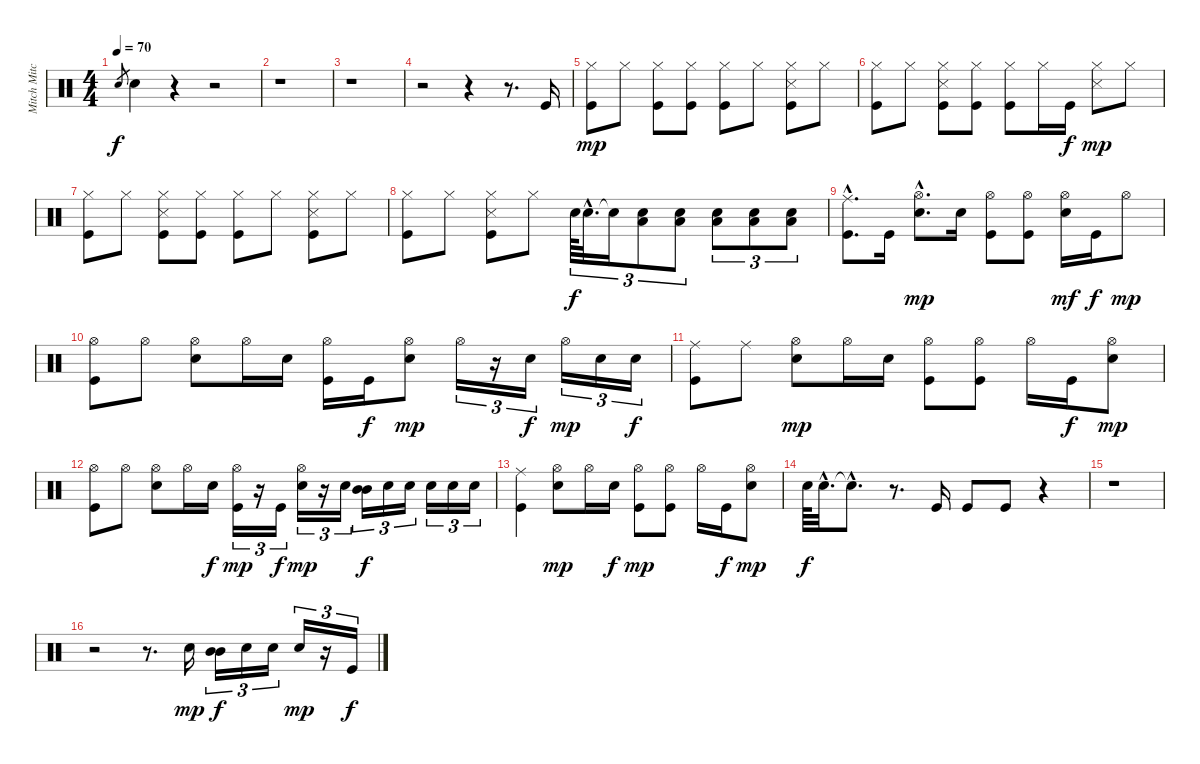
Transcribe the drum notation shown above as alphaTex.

\track ("Mitch Mitchell" "Mitch Mitc") {instrument percussion}
\staff {score}
\articulation defaults
\ts (4 4)
\tempo 70
\clef neutral
\ks c "Electric Snare (hit)".8{gr dy f} "Electric Snare (hit)".4
r.4 r.2 |
r.1 |
r.1 |
r.2 r.4 r.8{d} "Kick (hit)".16 |
("Hi-Hat (closed)" "Kick (hit)").8{dy mp} "Hi-Hat (closed)".8 ("Hi-Hat (closed)" "Kick (hit)").8 ("Hi-Hat (closed)" "Kick (hit)").8 ("Hi-Hat (closed)" "Kick (hit)").8 "Hi-Hat (closed)".8 ("Hi-Hat (closed)" "Snare (side stick) 3" "Kick (hit)").8 "Hi-Hat (closed)".8 |
("Hi-Hat (closed)" "Kick (hit)").8 "Hi-Hat (closed)".8 ("Hi-Hat (closed)" "Snare (side stick) 3" "Kick (hit)").8 ("Hi-Hat (closed)" "Kick (hit)").8 ("Hi-Hat (closed)" "Kick (hit)").8 "Hi-Hat (closed)".16 "Kick (hit)".16{dy f} ("Hi-Hat (closed)" "Snare (side stick) 3").8{dy mp} "Hi-Hat (closed)".8 |
("Hi-Hat (closed)" "Kick (hit)").8 "Hi-Hat (closed)".8 ("Hi-Hat (closed)" "Snare (side stick) 3" "Kick (hit)").8 ("Hi-Hat (closed)" "Kick (hit)").8 ("Hi-Hat (closed)" "Kick (hit)").8 "Hi-Hat (closed)".8 ("Hi-Hat (closed)" "Snare (side stick) 3" "Kick (hit)").8 "Hi-Hat (closed)".8 |
("Hi-Hat (closed)" "Kick (hit)").8 "Hi-Hat (closed)".8 ("Hi-Hat (closed)" "Snare (side stick) 3" "Kick (hit)").8 "Hi-Hat (closed)".8 "Electric Snare (hit)".64{tu (3 2) dy f} "Electric Snare (hit)"{hac}.32{d tu (3 2)} "Snare (hit)"{t}.16{tu (3 2)} ("Electric Snare (hit)" "Low Tom (hit)").8{tu (3 2)} ("Electric Snare (hit)" "Low Tom (hit)").8{tu (3 2)} ("Electric Snare (hit)" "Low Tom (hit)").8{tu (3 2)} ("Electric Snare (hit)" "Low Tom (hit)").8{tu (3 2)} ("Electric Snare (hit)" "Low Tom (hit)").8{tu (3 2)} |
("Ride (middle)"{hac} "Kick (hit)"{hac}).8{d} "Kick (hit)".16 ("Hi-Hat (open)"{hac} "Electric Snare (hit)"{hac}).8{d dy mp} "Electric Snare (hit)".16 ("Hi-Hat (open)" "Kick (hit)").8 ("Hi-Hat (open)" "Kick (hit)").8 ("Hi-Hat (open)" "Electric Snare (hit)").16{dy mf} "Kick (hit)".16{dy f} "Hi-Hat (open)".8{dy mp} |
("Hi-Hat (open)" "Kick (hit)").8 "Hi-Hat (open)".8 ("Hi-Hat (open)" "Electric Snare (hit)").8 "Hi-Hat (open)".16 "Electric Snare (hit)".16 ("Hi-Hat (open)" "Kick (hit)").16 "Kick (hit)".16{dy f} ("Hi-Hat (open)" "Electric Snare (hit)").8{dy mp} "Hi-Hat (open)".16{tu (3 2)} r.16{tu (3 2)} "Electric Snare (hit)".16{tu (3 2) dy f} "Hi-Hat (open)".16{tu (3 2) dy mp} "Electric Snare (hit)".16{tu (3 2)} "Electric Snare (hit)".16{tu (3 2) dy f} |
("Ride (middle)" "Kick (hit)").8 "Ride (middle)".8 ("Hi-Hat (open)" "Electric Snare (hit)").8{dy mp} "Hi-Hat (open)".16 "Electric Snare (hit)".16 ("Hi-Hat (open)" "Kick (hit)").8 ("Hi-Hat (open)" "Kick (hit)").8 "Hi-Hat (open)".16 "Kick (hit)".16{dy f} ("Hi-Hat (open)" "Electric Snare (hit)").8{dy mp} |
("Hi-Hat (open)" "Kick (hit)").8 "Hi-Hat (open)".8 ("Hi-Hat (open)" "Electric Snare (hit)").8 "Hi-Hat (open)".16 "Electric Snare (hit)".16{dy f} ("Hi-Hat (open)" "Kick (hit)").16{tu (3 2) dy mp} r.16{tu (3 2)} "Kick (hit)".16{tu (3 2) dy f} ("Hi-Hat (open)" "Electric Snare (hit)").16{tu (3 2) dy mp} r.16{tu (3 2)} "Electric Snare (hit)".16{tu (3 2)} ("Mid Tom (hit)" "Mid Tom (hit)").16{tu (3 2) dy f} "Electric Snare (hit)".16{tu (3 2)} "Electric Snare (hit)".16{tu (3 2)} "Electric Snare (hit)".16{tu (3 2)} "Electric Snare (hit)".16{tu (3 2)} "Electric Snare (hit)".16{tu (3 2)} |
("Ride (middle)" "Kick (hit)").4 ("Hi-Hat (open)" "Electric Snare (hit)").8{dy mp} "Hi-Hat (open)".16 "Electric Snare (hit)".16{dy f} ("Hi-Hat (open)" "Kick (hit)").8{dy mp} ("Hi-Hat (open)" "Kick (hit)").8 "Hi-Hat (open)".16 "Kick (hit)".16{dy f} ("Hi-Hat (open)" "Electric Snare (hit)").8{dy mp} |
"Electric Snare (hit)".64{dy f} "Electric Snare (hit)"{hac}.32{d} "Snare (hit)"{hac t}.8{d} r.8{d} "Kick (hit)".16 "Kick (hit)".8 "Kick (hit)".8 r.4 |
r.1 |
r.2 r.8{d} "Electric Snare (hit)".16{dy mp} ("Mid Tom (hit)" "Mid Tom (hit)").16{tu (3 2) dy f} "Electric Snare (hit)".16{tu (3 2)} "Electric Snare (hit)".16{tu (3 2)} "Electric Snare (hit)".16{tu (3 2) dy mp} r.16{tu (3 2)} "Kick (hit)".16{tu (3 2) dy f}
